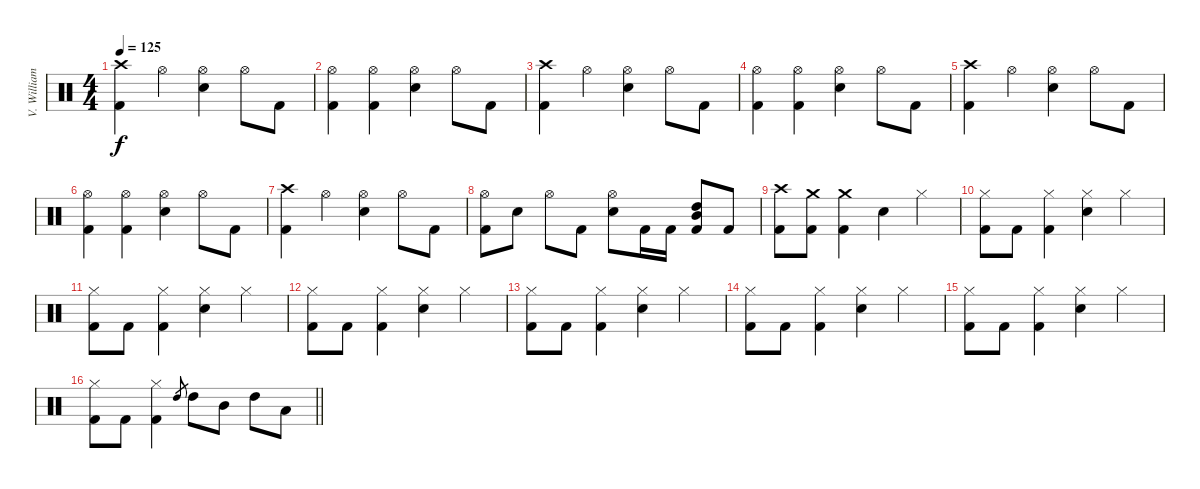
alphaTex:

\track ("V. Williams (Drums)" "V. William") {instrument percussion}
\staff {score}
\articulation defaults
\ts (4 4)
\section ("" "")
\tempo 125
\clef neutral
\ks c
("Crash high (hit)" "Kick (hit) 2").4{dy f} "Hi-Hat (open)".4 ("Hi-Hat (open)" "Electric Snare (hit)").4 "Hi-Hat (open)".8 "Kick (hit) 2".8 |
("Hi-Hat (open)" "Kick (hit) 2").4 ("Hi-Hat (open)" "Kick (hit) 2").4 ("Hi-Hat (open)" "Electric Snare (hit)").4 "Hi-Hat (open)".8 "Kick (hit) 2".8 |
("Crash high (hit)" "Kick (hit) 2").4 "Hi-Hat (open)".4 ("Hi-Hat (open)" "Electric Snare (hit)").4 "Hi-Hat (open)".8 "Kick (hit) 2".8 |
("Hi-Hat (open)" "Kick (hit) 2").4 ("Hi-Hat (open)" "Kick (hit) 2").4 ("Hi-Hat (open)" "Electric Snare (hit)").4 "Hi-Hat (open)".8 "Kick (hit) 2".8 |
("Crash high (hit)" "Kick (hit) 2").4 "Hi-Hat (open)".4 ("Hi-Hat (open)" "Electric Snare (hit)").4 "Hi-Hat (open)".8 "Kick (hit) 2".8 |
("Hi-Hat (open)" "Kick (hit) 2").4 ("Hi-Hat (open)" "Kick (hit) 2").4 ("Hi-Hat (open)" "Electric Snare (hit)").4 "Hi-Hat (open)".8 "Kick (hit) 2".8 |
("Crash high (hit)" "Kick (hit) 2").4 "Hi-Hat (open)".4 ("Hi-Hat (open)" "Electric Snare (hit)").4 "Hi-Hat (open)".8 "Kick (hit) 2".8 |
("Hi-Hat (open)" "Kick (hit) 2").8 "Electric Snare (hit)".8 "Hi-Hat (open)".8 "Kick (hit) 2".8 ("Hi-Hat (open)" "Electric Snare (hit)").8 "Kick (hit) 2".16 "Kick (hit) 2".16 ("High Tom (hit)" "Mid Tom (hit)" "Kick (hit) 2").8 "Kick (hit) 2".8 |
("Crash high (hit)" "Kick (hit) 2").8 ("Crash medium (hit)" "Kick (hit) 2").8 ("Crash medium (hit)" "Kick (hit) 2").4 "Electric Snare (hit)".4 "Hi-Hat (closed)".4 |
("Hi-Hat (closed)" "Kick (hit) 2").8 "Kick (hit) 2".8 ("Hi-Hat (closed)" "Kick (hit) 2").4 ("Hi-Hat (closed)" "Electric Snare (hit)").4 "Hi-Hat (closed)".4 |
("Hi-Hat (closed)" "Kick (hit) 2").8 "Kick (hit) 2".8 ("Hi-Hat (closed)" "Kick (hit) 2").4 ("Hi-Hat (closed)" "Electric Snare (hit)").4 "Hi-Hat (closed)".4 |
("Hi-Hat (closed)" "Kick (hit) 2").8 "Kick (hit) 2".8 ("Hi-Hat (closed)" "Kick (hit) 2").4 ("Hi-Hat (closed)" "Electric Snare (hit)").4 "Hi-Hat (closed)".4 |
("Hi-Hat (closed)" "Kick (hit) 2").8 "Kick (hit) 2".8 ("Hi-Hat (closed)" "Kick (hit) 2").4 ("Hi-Hat (closed)" "Electric Snare (hit)").4 "Hi-Hat (closed)".4 |
("Hi-Hat (closed)" "Kick (hit) 2").8 "Kick (hit) 2".8 ("Hi-Hat (closed)" "Kick (hit) 2").4 ("Hi-Hat (closed)" "Electric Snare (hit)").4 "Hi-Hat (closed)".4 |
("Hi-Hat (closed)" "Kick (hit) 2").8 "Kick (hit) 2".8 ("Hi-Hat (closed)" "Kick (hit) 2").4 ("Hi-Hat (closed)" "Electric Snare (hit)").4 "Hi-Hat (closed)".4 |
\barLineRight lightlight
("Hi-Hat (closed)" "Kick (hit) 2").8 "Kick (hit) 2".8 ("Hi-Hat (closed)" "Kick (hit) 2").4 "High Tom (hit)".8{gr} "High Tom (hit)".8 "Mid Tom (hit)".8 "High Tom (hit)".8 "Low Tom (hit)".8
